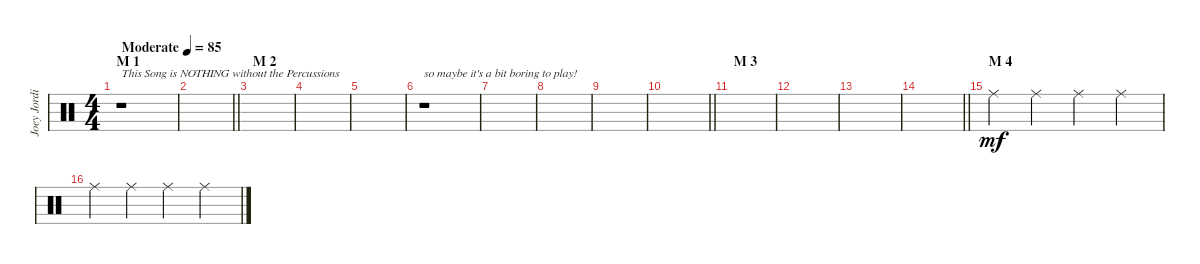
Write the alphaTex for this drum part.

\track ("Joey Jordison" "Joey Jordi") {instrument percussion}
\staff {score}
\articulation defaults
\ts (4 4)
\section ("" "M 1")
\tempo (85 "Moderate")
\clef neutral
\ks c
r.1{txt "This Song is NOTHING without the Percussions" dy mf} |
\barLineRight lightlight
|
\section ("" "M 2")
|
|
|
r.1{txt "so maybe it's a bit boring to play!"} |
|
|
|
\barLineRight lightlight
|
\section ("" "M 3")
|
|
|
\barLineRight lightlight
|
\section ("" "M 4")
"Ride (middle)".4 "Ride (middle)".4 "Ride (middle)".4 "Ride (middle)".4 |
"Ride (middle)".4 "Ride (middle)".4 "Ride (middle)".4 "Ride (middle)".4
